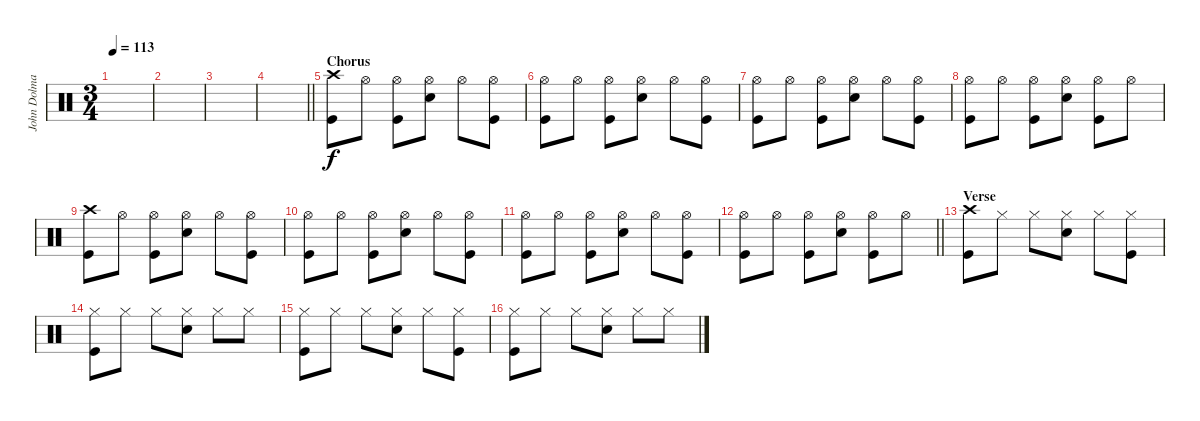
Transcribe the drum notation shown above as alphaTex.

\track ("John Dolmayan - Drums" "John Dolma") {instrument percussion}
\staff
\articulation defaults
\ts (3 4)
\tempo 113
\clef neutral
\ks c
|
|
|
\barLineRight lightlight
|
\section ("" "Chorus")
("Crash high (hit)" "Kick (hit)").8 "Hi-Hat (open)".8 ("Hi-Hat (open)" "Kick (hit)").8 ("Hi-Hat (open)" "Snare (hit) 2").8 "Hi-Hat (open)".8 ("Hi-Hat (open)" "Kick (hit)").8 |
("Hi-Hat (open)" "Kick (hit)").8 "Hi-Hat (open)".8 ("Hi-Hat (open)" "Kick (hit)").8 ("Hi-Hat (open)" "Snare (hit) 2").8 "Hi-Hat (open)".8 ("Hi-Hat (open)" "Kick (hit)").8 |
("Hi-Hat (open)" "Kick (hit)").8 "Hi-Hat (open)".8 ("Hi-Hat (open)" "Kick (hit)").8 ("Hi-Hat (open)" "Snare (hit) 2").8 "Hi-Hat (open)".8 ("Hi-Hat (open)" "Kick (hit)").8 |
("Hi-Hat (open)" "Kick (hit)").8 "Hi-Hat (open)".8 ("Hi-Hat (open)" "Kick (hit)").8 ("Hi-Hat (open)" "Snare (hit) 2").8 ("Hi-Hat (open)" "Kick (hit)").8 "Hi-Hat (open)".8 |
("Crash high (hit)" "Kick (hit)").8 "Hi-Hat (open)".8 ("Hi-Hat (open)" "Kick (hit)").8 ("Hi-Hat (open)" "Snare (hit) 2").8 "Hi-Hat (open)".8 ("Hi-Hat (open)" "Kick (hit)").8 |
("Hi-Hat (open)" "Kick (hit)").8 "Hi-Hat (open)".8 ("Hi-Hat (open)" "Kick (hit)").8 ("Hi-Hat (open)" "Snare (hit) 2").8 "Hi-Hat (open)".8 ("Hi-Hat (open)" "Kick (hit)").8 |
("Hi-Hat (open)" "Kick (hit)").8 "Hi-Hat (open)".8 ("Hi-Hat (open)" "Kick (hit)").8 ("Hi-Hat (open)" "Snare (hit) 2").8 "Hi-Hat (open)".8 ("Hi-Hat (open)" "Kick (hit)").8 |
\barLineRight lightlight
("Hi-Hat (open)" "Kick (hit)").8 "Hi-Hat (open)".8 ("Hi-Hat (open)" "Kick (hit)").8 ("Hi-Hat (open)" "Snare (hit) 2").8 ("Hi-Hat (open)" "Kick (hit)").8 "Hi-Hat (open)".8 |
\section ("" "Verse")
("Crash high (hit)" "Kick (hit)").8 "Hi-Hat (closed)".8 "Hi-Hat (closed)".8 ("Hi-Hat (closed)" "Snare (hit) 2").8 "Hi-Hat (closed)".8 ("Hi-Hat (closed)" "Kick (hit)").8 |
("Hi-Hat (closed)" "Kick (hit)").8 "Hi-Hat (closed)".8 "Hi-Hat (closed)".8 ("Hi-Hat (closed)" "Snare (hit) 2").8 "Hi-Hat (closed)".8 "Hi-Hat (closed)".8 |
("Hi-Hat (closed)" "Kick (hit)").8 "Hi-Hat (closed)".8 "Hi-Hat (closed)".8 ("Hi-Hat (closed)" "Snare (hit) 2").8 "Hi-Hat (closed)".8 ("Hi-Hat (closed)" "Kick (hit)").8 |
("Hi-Hat (closed)" "Kick (hit)").8 "Hi-Hat (closed)".8 "Hi-Hat (closed)".8 ("Hi-Hat (closed)" "Snare (hit) 2").8 "Hi-Hat (closed)".8 "Hi-Hat (closed)".8
